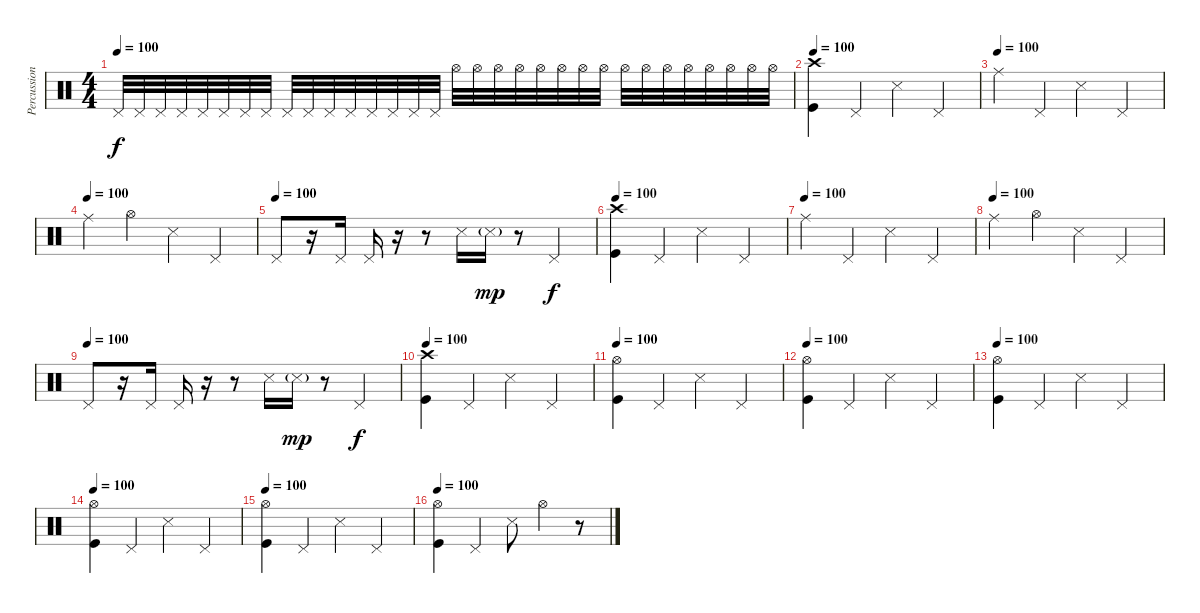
\track ("Percussions" "Percussion") {instrument percussion}
\staff {score}
\articulation defaults
\ts (4 4)
\tempo 100
\clef neutral
\ks c "Pedal Hi-Hat (hit)".32{dy f volume 15} "Pedal Hi-Hat (hit)".32 "Pedal Hi-Hat (hit)".32 "Pedal Hi-Hat (hit)".32 "Pedal Hi-Hat (hit)".32 "Pedal Hi-Hat (hit)".32 "Pedal Hi-Hat (hit)".32 "Pedal Hi-Hat (hit)".32 "Pedal Hi-Hat (hit)".32 "Pedal Hi-Hat (hit)".32 "Pedal Hi-Hat (hit)".32 "Pedal Hi-Hat (hit)".32 "Pedal Hi-Hat (hit)".32 "Pedal Hi-Hat (hit)".32 "Pedal Hi-Hat (hit)".32 "Pedal Hi-Hat (hit)".32 "Hi-Hat (open)".32{volume 16 balance 8} "Hi-Hat (open)".32 "Hi-Hat (open)".32 "Hi-Hat (open)".32 "Hi-Hat (open)".32 "Hi-Hat (open)".32 "Hi-Hat (open)".32 "Hi-Hat (open)".32 "Hi-Hat (open)".32 "Hi-Hat (open)".32 "Hi-Hat (open)".32 "Hi-Hat (open)".32 "Hi-Hat (open)".32 "Hi-Hat (open)".32 "Hi-Hat (open)".32 "Hi-Hat (open)".32
|
\tempo 100
("Crash high (hit)" "Kick (hit)").4 "Pedal Hi-Hat (hit)".4 "Snare (side stick) 3".4 "Pedal Hi-Hat (hit)".4 |
\tempo (100)
"Ride (middle)".4 "Pedal Hi-Hat (hit)".4 "Snare (side stick) 3".4 "Pedal Hi-Hat (hit)".4 |
\tempo (100)
"Ride (middle)".4 "Hi-Hat (open)".4 "Snare (side stick) 3".4 "Pedal Hi-Hat (hit)".4 |
\tempo (100)
"Pedal Hi-Hat (hit)".8 r.16 "Pedal Hi-Hat (hit)".16 "Pedal Hi-Hat (hit)".16 r.16 r.8 "Snare (side stick) 3".16 "Snare (side stick) 3"{g}.16{dy mp} r.8 "Pedal Hi-Hat (hit)".4{dy f} |
\tempo 100
("Crash high (hit)" "Kick (hit)").4 "Pedal Hi-Hat (hit)".4 "Snare (side stick) 3".4 "Pedal Hi-Hat (hit)".4 |
\tempo (100)
"Ride (middle)".4 "Pedal Hi-Hat (hit)".4 "Snare (side stick) 3".4 "Pedal Hi-Hat (hit)".4 |
\tempo (100)
"Ride (middle)".4 "Hi-Hat (open)".4 "Snare (side stick) 3".4 "Pedal Hi-Hat (hit)".4 |
\tempo (100)
"Pedal Hi-Hat (hit)".8 r.16 "Pedal Hi-Hat (hit)".16 "Pedal Hi-Hat (hit)".16 r.16 r.8 "Snare (side stick) 3".16 "Snare (side stick) 3"{g}.16{dy mp} r.8 "Pedal Hi-Hat (hit)".4{dy f} |
\tempo 100
("Crash high (hit)" "Kick (hit)").4 "Pedal Hi-Hat (hit)".4 "Snare (side stick) 3".4 "Pedal Hi-Hat (hit)".4 |
\tempo 100
("Hi-Hat (open)" "Kick (hit)").4 "Pedal Hi-Hat (hit)".4 "Snare (side stick) 3".4 "Pedal Hi-Hat (hit)".4 |
\tempo 100
("Hi-Hat (open)" "Kick (hit)").4 "Pedal Hi-Hat (hit)".4 "Snare (side stick) 3".4 "Pedal Hi-Hat (hit)".4 |
\tempo 100
("Hi-Hat (open)" "Kick (hit)").4 "Pedal Hi-Hat (hit)".4 "Snare (side stick) 3".4 "Pedal Hi-Hat (hit)".4 |
\tempo 100
("Hi-Hat (open)" "Kick (hit)").4 "Pedal Hi-Hat (hit)".4 "Snare (side stick) 3".4 "Pedal Hi-Hat (hit)".4 |
\tempo 100
("Hi-Hat (open)" "Kick (hit)").4 "Pedal Hi-Hat (hit)".4 "Snare (side stick) 3".4 "Pedal Hi-Hat (hit)".4 |
\tempo 100
("Hi-Hat (open)" "Kick (hit)").4 "Pedal Hi-Hat (hit)".4 "Snare (side stick) 3".8 "Hi-Hat (open)".4 r.8
